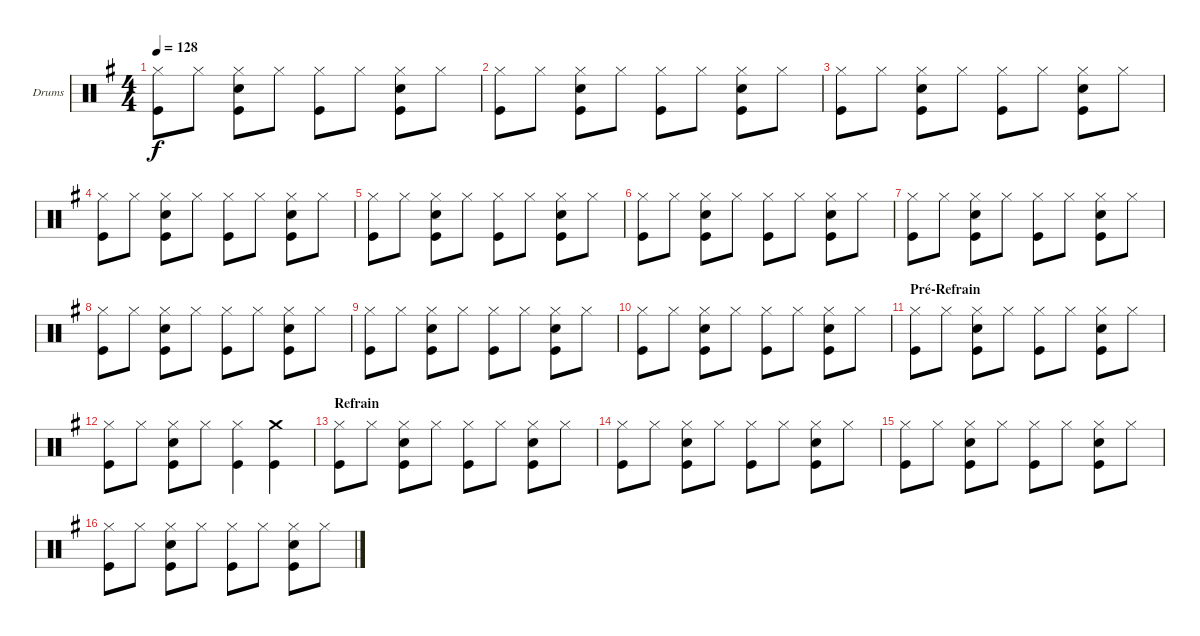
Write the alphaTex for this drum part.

\bracketExtendMode groupsimilarinstruments
\firstSystemTrackNameOrientation horizontal
\otherSystemsTrackNameOrientation horizontal
\track ("Drumkit" "Drums") {multiBarRest instrument percussion}
\staff {score}
\articulation defaults
\ts (4 4)
\tempo 128
\clef neutral
\ks eminor
("Hi-Hat (closed)" "Kick (hit)").8{dy f} "Hi-Hat (closed)".8 ("Hi-Hat (closed)" "Snare (hit) 2" "Kick (hit)").8 "Hi-Hat (closed)".8 ("Hi-Hat (closed)" "Kick (hit)").8 "Hi-Hat (closed)".8 ("Hi-Hat (closed)" "Snare (hit) 2" "Kick (hit)").8 "Hi-Hat (closed)".8 |
("Hi-Hat (closed)" "Kick (hit)").8 "Hi-Hat (closed)".8 ("Hi-Hat (closed)" "Snare (hit) 2" "Kick (hit)").8 "Hi-Hat (closed)".8 ("Hi-Hat (closed)" "Kick (hit)").8 "Hi-Hat (closed)".8 ("Hi-Hat (closed)" "Snare (hit) 2" "Kick (hit)").8 "Hi-Hat (closed)".8 |
("Hi-Hat (closed)" "Kick (hit)").8 "Hi-Hat (closed)".8 ("Hi-Hat (closed)" "Snare (hit) 2" "Kick (hit)").8 "Hi-Hat (closed)".8 ("Hi-Hat (closed)" "Kick (hit)").8 "Hi-Hat (closed)".8 ("Hi-Hat (closed)" "Snare (hit) 2" "Kick (hit)").8 "Hi-Hat (closed)".8 |
("Hi-Hat (closed)" "Kick (hit)").8 "Hi-Hat (closed)".8 ("Hi-Hat (closed)" "Snare (hit) 2" "Kick (hit)").8 "Hi-Hat (closed)".8 ("Hi-Hat (closed)" "Kick (hit)").8 "Hi-Hat (closed)".8 ("Hi-Hat (closed)" "Snare (hit) 2" "Kick (hit)").8 "Hi-Hat (closed)".8 |
("Hi-Hat (closed)" "Kick (hit)").8 "Hi-Hat (closed)".8 ("Hi-Hat (closed)" "Snare (hit) 2" "Kick (hit)").8 "Hi-Hat (closed)".8 ("Hi-Hat (closed)" "Kick (hit)").8 "Hi-Hat (closed)".8 ("Hi-Hat (closed)" "Snare (hit) 2" "Kick (hit)").8 "Hi-Hat (closed)".8 |
("Hi-Hat (closed)" "Kick (hit)").8 "Hi-Hat (closed)".8 ("Hi-Hat (closed)" "Snare (hit) 2" "Kick (hit)").8 "Hi-Hat (closed)".8 ("Hi-Hat (closed)" "Kick (hit)").8 "Hi-Hat (closed)".8 ("Hi-Hat (closed)" "Snare (hit) 2" "Kick (hit)").8 "Hi-Hat (closed)".8 |
("Hi-Hat (closed)" "Kick (hit)").8 "Hi-Hat (closed)".8 ("Hi-Hat (closed)" "Snare (hit) 2" "Kick (hit)").8 "Hi-Hat (closed)".8 ("Hi-Hat (closed)" "Kick (hit)").8 "Hi-Hat (closed)".8 ("Hi-Hat (closed)" "Snare (hit) 2" "Kick (hit)").8 "Hi-Hat (closed)".8 |
("Hi-Hat (closed)" "Kick (hit)").8 "Hi-Hat (closed)".8 ("Hi-Hat (closed)" "Snare (hit) 2" "Kick (hit)").8 "Hi-Hat (closed)".8 ("Hi-Hat (closed)" "Kick (hit)").8 "Hi-Hat (closed)".8 ("Hi-Hat (closed)" "Snare (hit) 2" "Kick (hit)").8 "Hi-Hat (closed)".8 |
("Hi-Hat (closed)" "Kick (hit)").8 "Hi-Hat (closed)".8 ("Hi-Hat (closed)" "Snare (hit) 2" "Kick (hit)").8 "Hi-Hat (closed)".8 ("Hi-Hat (closed)" "Kick (hit)").8 "Hi-Hat (closed)".8 ("Hi-Hat (closed)" "Snare (hit) 2" "Kick (hit)").8 "Hi-Hat (closed)".8 |
("Hi-Hat (closed)" "Kick (hit)").8 "Hi-Hat (closed)".8 ("Hi-Hat (closed)" "Snare (hit) 2" "Kick (hit)").8 "Hi-Hat (closed)".8 ("Hi-Hat (closed)" "Kick (hit)").8 "Hi-Hat (closed)".8 ("Hi-Hat (closed)" "Snare (hit) 2" "Kick (hit)").8 "Hi-Hat (closed)".8 |
\section ("" "Pré-Refrain")
("Hi-Hat (closed)" "Kick (hit)").8 "Hi-Hat (closed)".8 ("Hi-Hat (closed)" "Snare (hit) 2" "Kick (hit)").8 "Hi-Hat (closed)".8 ("Hi-Hat (closed)" "Kick (hit)").8 "Hi-Hat (closed)".8 ("Hi-Hat (closed)" "Snare (hit) 2" "Kick (hit)").8 "Hi-Hat (closed)".8 |
("Hi-Hat (closed)" "Kick (hit)").8 "Hi-Hat (closed)".8 ("Hi-Hat (closed)" "Snare (hit) 2" "Kick (hit)").8 "Hi-Hat (closed)".8 ("Hi-Hat (closed)" "Kick (hit)").4 ("Crash medium (hit)" "Kick (hit)").4 |
\section ("" "Refrain")
("Hi-Hat (closed)" "Kick (hit)").8 "Hi-Hat (closed)".8 ("Hi-Hat (closed)" "Snare (hit) 2" "Kick (hit)").8 "Hi-Hat (closed)".8 ("Hi-Hat (closed)" "Kick (hit)").8 "Hi-Hat (closed)".8 ("Hi-Hat (closed)" "Snare (hit) 2" "Kick (hit)").8 "Hi-Hat (closed)".8 |
("Hi-Hat (closed)" "Kick (hit)").8 "Hi-Hat (closed)".8 ("Hi-Hat (closed)" "Snare (hit) 2" "Kick (hit)").8 "Hi-Hat (closed)".8 ("Hi-Hat (closed)" "Kick (hit)").8 "Hi-Hat (closed)".8 ("Hi-Hat (closed)" "Snare (hit) 2" "Kick (hit)").8 "Hi-Hat (closed)".8 |
("Hi-Hat (closed)" "Kick (hit)").8 "Hi-Hat (closed)".8 ("Hi-Hat (closed)" "Snare (hit) 2" "Kick (hit)").8 "Hi-Hat (closed)".8 ("Hi-Hat (closed)" "Kick (hit)").8 "Hi-Hat (closed)".8 ("Hi-Hat (closed)" "Snare (hit) 2" "Kick (hit)").8 "Hi-Hat (closed)".8 |
("Hi-Hat (closed)" "Kick (hit)").8 "Hi-Hat (closed)".8 ("Hi-Hat (closed)" "Snare (hit) 2" "Kick (hit)").8 "Hi-Hat (closed)".8 ("Hi-Hat (closed)" "Kick (hit)").8 "Hi-Hat (closed)".8 ("Hi-Hat (closed)" "Snare (hit) 2" "Kick (hit)").8 "Hi-Hat (closed)".8
